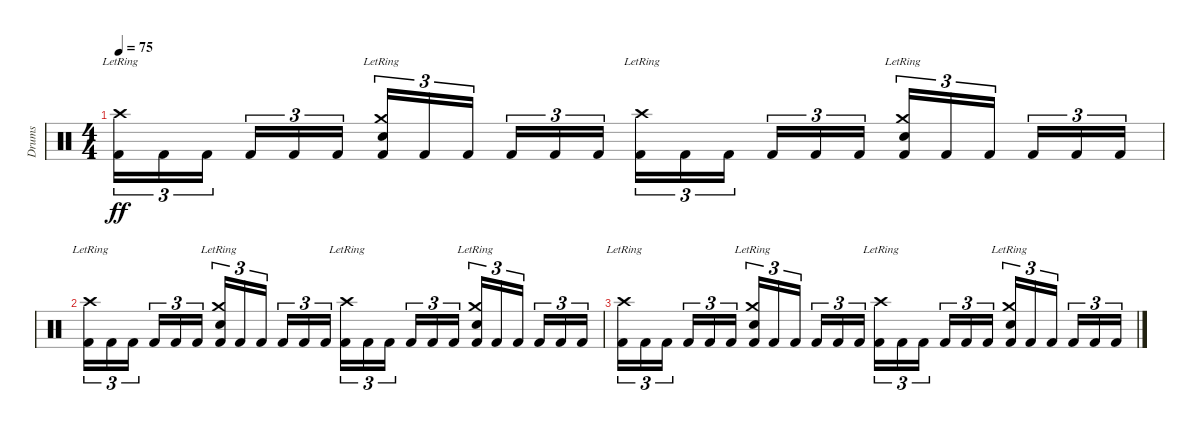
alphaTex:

\track ("Drums" "Drums") {instrument percussion}
\staff {score}
\articulation defaults
\ts (4 4)
\tempo 75
\clef neutral
\ks c
("Crash high (hit)"{lr} "Kick (hit) 2").16{tu (3 2) dy ff} "Kick (hit) 2".16{tu (3 2)} "Kick (hit) 2".16{tu (3 2)} "Kick (hit) 2".16{tu (3 2)} "Kick (hit) 2".16{tu (3 2)} "Kick (hit) 2".16{tu (3 2)} ("Crash medium (hit)"{lr} "Snare (hit) 2" "Kick (hit) 2").16{tu (3 2)} "Kick (hit) 2".16{tu (3 2)} "Kick (hit) 2".16{tu (3 2)} "Kick (hit) 2".16{tu (3 2)} "Kick (hit) 2".16{tu (3 2)} "Kick (hit) 2".16{tu (3 2)} ("Crash high (hit)"{lr} "Kick (hit) 2").16{tu (3 2)} "Kick (hit) 2".16{tu (3 2)} "Kick (hit) 2".16{tu (3 2)} "Kick (hit) 2".16{tu (3 2)} "Kick (hit) 2".16{tu (3 2)} "Kick (hit) 2".16{tu (3 2)} ("Crash medium (hit)"{lr} "Snare (hit) 2" "Kick (hit) 2").16{tu (3 2)} "Kick (hit) 2".16{tu (3 2)} "Kick (hit) 2".16{tu (3 2)} "Kick (hit) 2".16{tu (3 2)} "Kick (hit) 2".16{tu (3 2)} "Kick (hit) 2".16{tu (3 2)} |
("Crash high (hit)"{lr} "Kick (hit) 2").16{tu (3 2)} "Kick (hit) 2".16{tu (3 2)} "Kick (hit) 2".16{tu (3 2)} "Kick (hit) 2".16{tu (3 2)} "Kick (hit) 2".16{tu (3 2)} "Kick (hit) 2".16{tu (3 2)} ("Crash medium (hit)"{lr} "Snare (hit) 2" "Kick (hit) 2").16{tu (3 2)} "Kick (hit) 2".16{tu (3 2)} "Kick (hit) 2".16{tu (3 2)} "Kick (hit) 2".16{tu (3 2)} "Kick (hit) 2".16{tu (3 2)} "Kick (hit) 2".16{tu (3 2)} ("Crash high (hit)"{lr} "Kick (hit) 2").16{tu (3 2)} "Kick (hit) 2".16{tu (3 2)} "Kick (hit) 2".16{tu (3 2)} "Kick (hit) 2".16{tu (3 2)} "Kick (hit) 2".16{tu (3 2)} "Kick (hit) 2".16{tu (3 2)} ("Crash medium (hit)"{lr} "Snare (hit) 2" "Kick (hit) 2").16{tu (3 2)} "Kick (hit) 2".16{tu (3 2)} "Kick (hit) 2".16{tu (3 2)} "Kick (hit) 2".16{tu (3 2)} "Kick (hit) 2".16{tu (3 2)} "Kick (hit) 2".16{tu (3 2)} |
("Crash high (hit)"{lr} "Kick (hit) 2").16{tu (3 2)} "Kick (hit) 2".16{tu (3 2)} "Kick (hit) 2".16{tu (3 2)} "Kick (hit) 2".16{tu (3 2)} "Kick (hit) 2".16{tu (3 2)} "Kick (hit) 2".16{tu (3 2)} ("Crash medium (hit)"{lr} "Snare (hit) 2" "Kick (hit) 2").16{tu (3 2)} "Kick (hit) 2".16{tu (3 2)} "Kick (hit) 2".16{tu (3 2)} "Kick (hit) 2".16{tu (3 2)} "Kick (hit) 2".16{tu (3 2)} "Kick (hit) 2".16{tu (3 2)} ("Crash high (hit)"{lr} "Kick (hit) 2").16{tu (3 2)} "Kick (hit) 2".16{tu (3 2)} "Kick (hit) 2".16{tu (3 2)} "Kick (hit) 2".16{tu (3 2)} "Kick (hit) 2".16{tu (3 2)} "Kick (hit) 2".16{tu (3 2)} ("Crash medium (hit)"{lr} "Snare (hit) 2" "Kick (hit) 2").16{tu (3 2)} "Kick (hit) 2".16{tu (3 2)} "Kick (hit) 2".16{tu (3 2)} "Kick (hit) 2".16{tu (3 2)} "Kick (hit) 2".16{tu (3 2)} "Kick (hit) 2".16{tu (3 2)}
